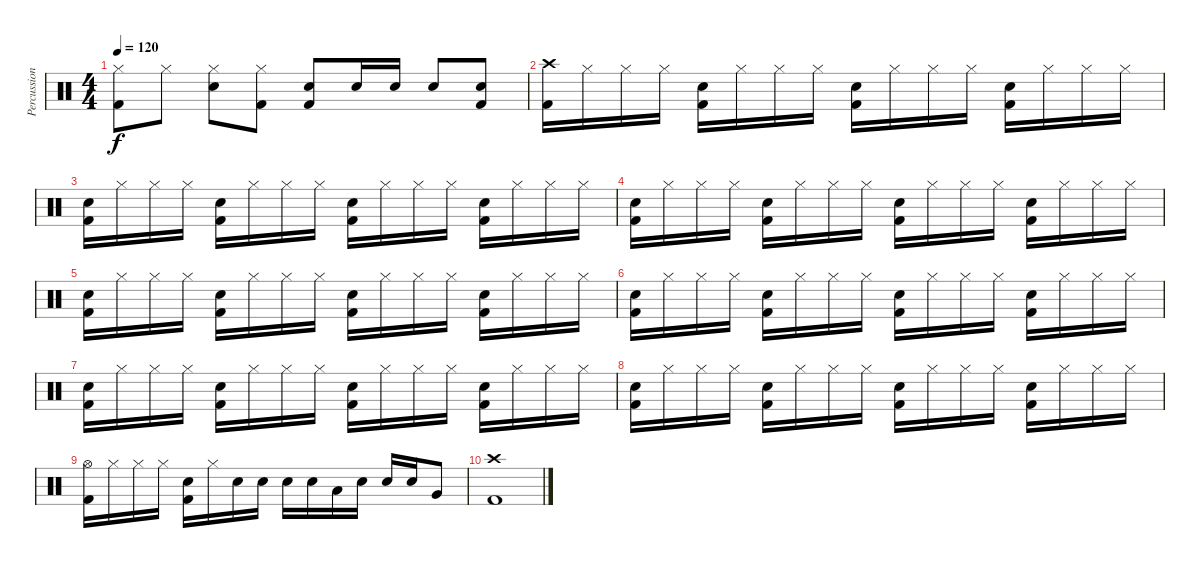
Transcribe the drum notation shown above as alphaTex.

\track ("Percussion" "Percussion") {instrument percussion}
\staff {score}
\articulation defaults
\ts (4 4)
\tempo 120
\clef neutral
\ks c
("Hi-Hat (closed)" "Kick (hit) 2").8{dy f} "Hi-Hat (closed)".8 ("Hi-Hat (closed)" "Snare (hit) 2").8 ("Hi-Hat (closed)" "Kick (hit) 2").8 ("Snare (hit) 2" "Kick (hit) 2").8 "Snare (hit) 2".16 "Snare (hit) 2".16 "Snare (hit) 2".8 ("Snare (hit) 2" "Kick (hit) 2").8 |
("Crash high (hit)" "Kick (hit) 2").16 "Hi-Hat (closed)".16 "Hi-Hat (closed)".16 "Hi-Hat (closed)".16 ("Snare (hit) 2" "Kick (hit) 2").16 "Hi-Hat (closed)".16 "Hi-Hat (closed)".16 "Hi-Hat (closed)".16 ("Snare (hit) 2" "Kick (hit) 2").16 "Hi-Hat (closed)".16 "Hi-Hat (closed)".16 "Hi-Hat (closed)".16 ("Snare (hit) 2" "Kick (hit) 2").16 "Hi-Hat (closed)".16 "Hi-Hat (closed)".16 "Hi-Hat (closed)".16 |
("Snare (hit) 2" "Kick (hit) 2").16 "Hi-Hat (closed)".16 "Hi-Hat (closed)".16 "Hi-Hat (closed)".16 ("Snare (hit) 2" "Kick (hit) 2").16 "Hi-Hat (closed)".16 "Hi-Hat (closed)".16 "Hi-Hat (closed)".16 ("Snare (hit) 2" "Kick (hit) 2").16 "Hi-Hat (closed)".16 "Hi-Hat (closed)".16 "Hi-Hat (closed)".16 ("Snare (hit) 2" "Kick (hit) 2").16 "Hi-Hat (closed)".16 "Hi-Hat (closed)".16 "Hi-Hat (closed)".16 |
("Snare (hit) 2" "Kick (hit) 2").16 "Hi-Hat (closed)".16 "Hi-Hat (closed)".16 "Hi-Hat (closed)".16 ("Snare (hit) 2" "Kick (hit) 2").16 "Hi-Hat (closed)".16 "Hi-Hat (closed)".16 "Hi-Hat (closed)".16 ("Snare (hit) 2" "Kick (hit) 2").16 "Hi-Hat (closed)".16 "Hi-Hat (closed)".16 "Hi-Hat (closed)".16 ("Snare (hit) 2" "Kick (hit) 2").16 "Hi-Hat (closed)".16 "Hi-Hat (closed)".16 "Hi-Hat (closed)".16 |
("Snare (hit) 2" "Kick (hit) 2").16 "Hi-Hat (closed)".16 "Hi-Hat (closed)".16 "Hi-Hat (closed)".16 ("Snare (hit) 2" "Kick (hit) 2").16 "Hi-Hat (closed)".16 "Hi-Hat (closed)".16 "Hi-Hat (closed)".16 ("Snare (hit) 2" "Kick (hit) 2").16 "Hi-Hat (closed)".16 "Hi-Hat (closed)".16 "Hi-Hat (closed)".16 ("Snare (hit) 2" "Kick (hit) 2").16 "Hi-Hat (closed)".16 "Hi-Hat (closed)".16 "Hi-Hat (closed)".16 |
("Snare (hit) 2" "Kick (hit) 2").16 "Hi-Hat (closed)".16 "Hi-Hat (closed)".16 "Hi-Hat (closed)".16 ("Snare (hit) 2" "Kick (hit) 2").16 "Hi-Hat (closed)".16 "Hi-Hat (closed)".16 "Hi-Hat (closed)".16 ("Snare (hit) 2" "Kick (hit) 2").16 "Hi-Hat (closed)".16 "Hi-Hat (closed)".16 "Hi-Hat (closed)".16 ("Snare (hit) 2" "Kick (hit) 2").16 "Hi-Hat (closed)".16 "Hi-Hat (closed)".16 "Hi-Hat (closed)".16 |
("Snare (hit) 2" "Kick (hit) 2").16 "Hi-Hat (closed)".16 "Hi-Hat (closed)".16 "Hi-Hat (closed)".16 ("Snare (hit) 2" "Kick (hit) 2").16 "Hi-Hat (closed)".16 "Hi-Hat (closed)".16 "Hi-Hat (closed)".16 ("Snare (hit) 2" "Kick (hit) 2").16 "Hi-Hat (closed)".16 "Hi-Hat (closed)".16 "Hi-Hat (closed)".16 ("Snare (hit) 2" "Kick (hit) 2").16 "Hi-Hat (closed)".16 "Hi-Hat (closed)".16 "Hi-Hat (closed)".16 |
("Snare (hit) 2" "Kick (hit) 2").16 "Hi-Hat (closed)".16 "Hi-Hat (closed)".16 "Hi-Hat (closed)".16 ("Snare (hit) 2" "Kick (hit) 2").16 "Hi-Hat (closed)".16 "Hi-Hat (closed)".16 "Hi-Hat (closed)".16 ("Snare (hit) 2" "Kick (hit) 2").16 "Hi-Hat (closed)".16 "Hi-Hat (closed)".16 "Hi-Hat (closed)".16 ("Snare (hit) 2" "Kick (hit) 2").16 "Hi-Hat (closed)".16 "Hi-Hat (closed)".16 "Hi-Hat (closed)".16 |
("Hi-Hat (open)" "Kick (hit) 2").16 "Hi-Hat (closed)".16 "Hi-Hat (closed)".16 "Hi-Hat (closed)".16 ("Snare (hit) 2" "Kick (hit) 2").16 "Hi-Hat (closed)".16 "Snare (hit) 2".16 "Snare (hit) 2".16 "Snare (hit) 2".16 "Snare (hit) 2".16 "Low Tom (hit)".16 "Snare (hit) 2".16 "Snare (hit) 2".16 "Snare (hit) 2".16 "Very Low Tom (hit)".8 |
("Crash high (hit)" "Kick (hit) 2").1
